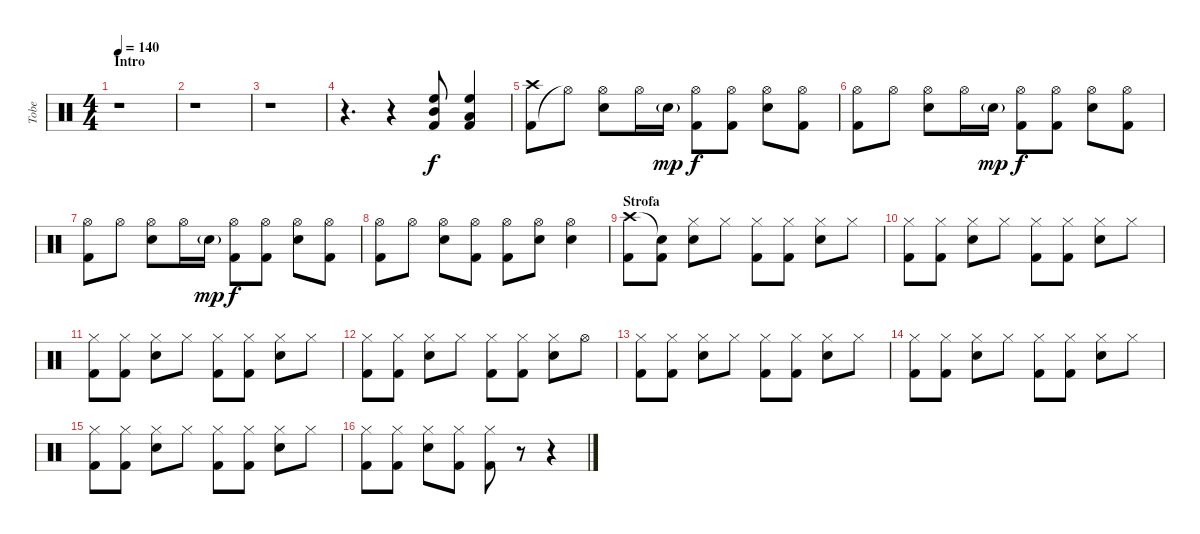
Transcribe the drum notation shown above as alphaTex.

\track ("Tobe" "Tobe") {instrument percussion}
\staff {score}
\articulation defaults
\ts (4 4)
\section ("" "Intro")
\tempo 140
\clef neutral
\ks c
r.1{dy f} |
r.1 |
r.1 |
r.4{d} r.4 ("Kick (hit) 2" "High Floor Tom (hit)" "Mid Tom (hit)").8 ("Kick (hit) 2" "Low Floor Tom (hit)" "High Floor Tom (hit)").4 |
("Kick (hit) 2" "Crash high (hit)").8 "Hi-Hat (open)"{t}.8 ("Electric Snare (hit)" "Hi-Hat (open)").8 "Hi-Hat (open)".16 "Electric Snare (hit)"{g}.16{dy mp} ("Kick (hit) 2" "Hi-Hat (open)").8{dy f} ("Kick (hit) 2" "Hi-Hat (open)").8 ("Electric Snare (hit)" "Hi-Hat (open)").8 ("Kick (hit) 2" "Hi-Hat (open)").8 |
("Kick (hit) 2" "Hi-Hat (open)").8 "Hi-Hat (open)".8 ("Electric Snare (hit)" "Hi-Hat (open)").8 "Hi-Hat (open)".16 "Electric Snare (hit)"{g}.16{dy mp} ("Kick (hit) 2" "Hi-Hat (open)").8{dy f} ("Kick (hit) 2" "Hi-Hat (open)").8 ("Electric Snare (hit)" "Hi-Hat (open)").8 ("Kick (hit) 2" "Hi-Hat (open)").8 |
("Kick (hit) 2" "Hi-Hat (open)").8 "Hi-Hat (open)".8 ("Electric Snare (hit)" "Hi-Hat (open)").8 "Hi-Hat (open)".16 "Electric Snare (hit)"{g}.16{dy mp} ("Kick (hit) 2" "Hi-Hat (open)").8{dy f} ("Kick (hit) 2" "Hi-Hat (open)").8 ("Electric Snare (hit)" "Hi-Hat (open)").8 ("Kick (hit) 2" "Hi-Hat (open)").8 |
("Kick (hit) 2" "Hi-Hat (open)").8 "Hi-Hat (open)".8 ("Electric Snare (hit)" "Hi-Hat (open)").8 ("Kick (hit) 2" "Hi-Hat (open)").8 ("Kick (hit) 2" "Hi-Hat (open)").8 ("Electric Snare (hit)" "Hi-Hat (open)").8 ("Electric Snare (hit)" "Hi-Hat (open)").4 |
\section ("" "Strofa")
("Kick (hit) 2" "Crash high (hit)").8 ("Kick (hit) 2" "Snare (hit)"{t}).8 ("Electric Snare (hit)" "Hi-Hat (closed)").8 "Hi-Hat (closed)".8 ("Kick (hit) 2" "Hi-Hat (closed)").8 ("Kick (hit) 2" "Hi-Hat (closed)").8 ("Electric Snare (hit)" "Hi-Hat (closed)").8 "Hi-Hat (closed)".8 |
("Kick (hit) 2" "Hi-Hat (closed)").8 ("Kick (hit) 2" "Hi-Hat (closed)").8 ("Electric Snare (hit)" "Hi-Hat (closed)").8 "Hi-Hat (closed)".8 ("Kick (hit) 2" "Hi-Hat (closed)").8 ("Kick (hit) 2" "Hi-Hat (closed)").8 ("Electric Snare (hit)" "Hi-Hat (closed)").8 "Hi-Hat (closed)".8 |
("Kick (hit) 2" "Hi-Hat (closed)").8 ("Kick (hit) 2" "Hi-Hat (closed)").8 ("Electric Snare (hit)" "Hi-Hat (closed)").8 "Hi-Hat (closed)".8 ("Kick (hit) 2" "Hi-Hat (closed)").8 ("Kick (hit) 2" "Hi-Hat (closed)").8 ("Electric Snare (hit)" "Hi-Hat (closed)").8 "Hi-Hat (closed)".8 |
("Kick (hit) 2" "Hi-Hat (closed)").8 ("Kick (hit) 2" "Hi-Hat (closed)").8 ("Electric Snare (hit)" "Hi-Hat (closed)").8 "Hi-Hat (closed)".8 ("Kick (hit) 2" "Hi-Hat (closed)").8 ("Kick (hit) 2" "Hi-Hat (closed)").8 ("Electric Snare (hit)" "Hi-Hat (closed)").8 "Hi-Hat (open)".8 |
("Kick (hit) 2" "Hi-Hat (closed)").8 ("Kick (hit) 2" "Hi-Hat (closed)").8 ("Electric Snare (hit)" "Hi-Hat (closed)").8 "Hi-Hat (closed)".8 ("Kick (hit) 2" "Hi-Hat (closed)").8 ("Kick (hit) 2" "Hi-Hat (closed)").8 ("Electric Snare (hit)" "Hi-Hat (closed)").8 "Hi-Hat (closed)".8 |
("Kick (hit) 2" "Hi-Hat (closed)").8 ("Kick (hit) 2" "Hi-Hat (closed)").8 ("Electric Snare (hit)" "Hi-Hat (closed)").8 "Hi-Hat (closed)".8 ("Kick (hit) 2" "Hi-Hat (closed)").8 ("Kick (hit) 2" "Hi-Hat (closed)").8 ("Electric Snare (hit)" "Hi-Hat (closed)").8 "Hi-Hat (closed)".8 |
("Kick (hit) 2" "Hi-Hat (closed)").8 ("Kick (hit) 2" "Hi-Hat (closed)").8 ("Electric Snare (hit)" "Hi-Hat (closed)").8 "Hi-Hat (closed)".8 ("Kick (hit) 2" "Hi-Hat (closed)").8 ("Kick (hit) 2" "Hi-Hat (closed)").8 ("Electric Snare (hit)" "Hi-Hat (closed)").8 "Hi-Hat (closed)".8 |
("Kick (hit) 2" "Hi-Hat (closed)").8 ("Kick (hit) 2" "Hi-Hat (closed)").8 ("Electric Snare (hit)" "Hi-Hat (closed)").8 ("Kick (hit) 2" "Hi-Hat (closed)").8 ("Kick (hit) 2" "Hi-Hat (closed)").8 r.8 r.4
